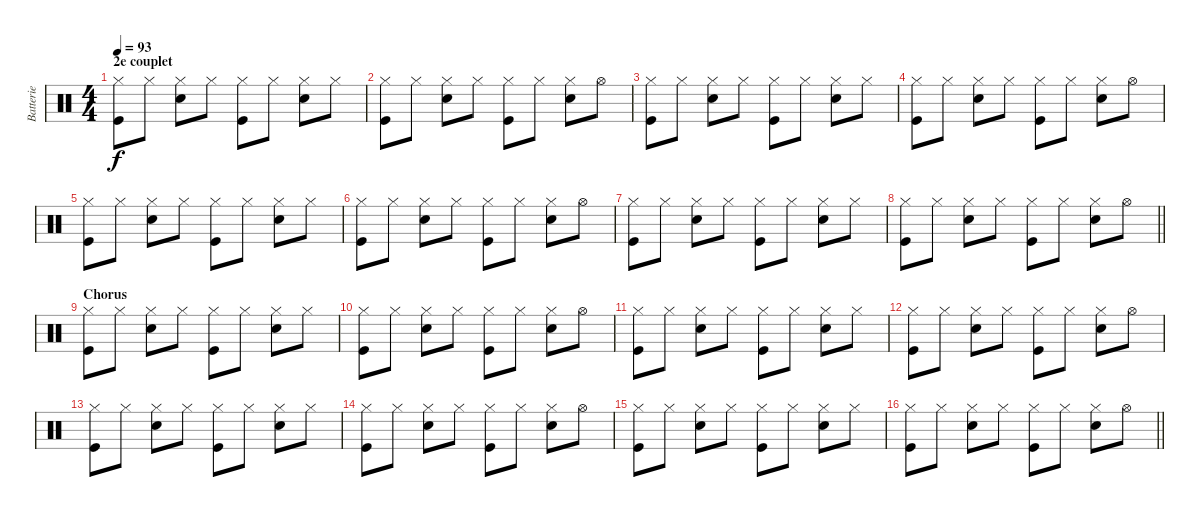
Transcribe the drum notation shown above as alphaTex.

\track ("Batterie" "Batterie") {instrument percussion}
\staff {score}
\articulation defaults
\ts (4 4)
\section ("" "2e couplet")
\tempo 93
\clef neutral
\ks c
("Hi-Hat (closed)" "Kick (hit)").8{dy f} "Hi-Hat (closed)".8 ("Hi-Hat (closed)" "Snare (hit) 2").8 "Hi-Hat (closed)".8 ("Hi-Hat (closed)" "Kick (hit)").8 "Hi-Hat (closed)".8 ("Hi-Hat (closed)" "Snare (hit) 2").8 "Hi-Hat (closed)".8 |
("Hi-Hat (closed)" "Kick (hit)").8 "Hi-Hat (closed)".8 ("Hi-Hat (closed)" "Snare (hit) 2").8 "Hi-Hat (closed)".8 ("Hi-Hat (closed)" "Kick (hit)").8 "Hi-Hat (closed)".8 ("Hi-Hat (closed)" "Snare (hit) 2").8 "Hi-Hat (open)".8 |
("Hi-Hat (closed)" "Kick (hit)").8 "Hi-Hat (closed)".8 ("Hi-Hat (closed)" "Snare (hit) 2").8 "Hi-Hat (closed)".8 ("Hi-Hat (closed)" "Kick (hit)").8 "Hi-Hat (closed)".8 ("Hi-Hat (closed)" "Snare (hit) 2").8 "Hi-Hat (closed)".8 |
("Hi-Hat (closed)" "Kick (hit)").8 "Hi-Hat (closed)".8 ("Hi-Hat (closed)" "Snare (hit) 2").8 "Hi-Hat (closed)".8 ("Hi-Hat (closed)" "Kick (hit)").8 "Hi-Hat (closed)".8 ("Hi-Hat (closed)" "Snare (hit) 2").8 "Hi-Hat (open)".8 |
("Hi-Hat (closed)" "Kick (hit)").8 "Hi-Hat (closed)".8 ("Hi-Hat (closed)" "Snare (hit) 2").8 "Hi-Hat (closed)".8 ("Hi-Hat (closed)" "Kick (hit)").8 "Hi-Hat (closed)".8 ("Hi-Hat (closed)" "Snare (hit) 2").8 "Hi-Hat (closed)".8 |
("Hi-Hat (closed)" "Kick (hit)").8 "Hi-Hat (closed)".8 ("Hi-Hat (closed)" "Snare (hit) 2").8 "Hi-Hat (closed)".8 ("Hi-Hat (closed)" "Kick (hit)").8 "Hi-Hat (closed)".8 ("Hi-Hat (closed)" "Snare (hit) 2").8 "Hi-Hat (open)".8 |
("Hi-Hat (closed)" "Kick (hit)").8 "Hi-Hat (closed)".8 ("Hi-Hat (closed)" "Snare (hit) 2").8 "Hi-Hat (closed)".8 ("Hi-Hat (closed)" "Kick (hit)").8 "Hi-Hat (closed)".8 ("Hi-Hat (closed)" "Snare (hit) 2").8 "Hi-Hat (closed)".8 |
\barLineRight lightlight
("Hi-Hat (closed)" "Kick (hit)").8 "Hi-Hat (closed)".8 ("Hi-Hat (closed)" "Snare (hit) 2").8 "Hi-Hat (closed)".8 ("Hi-Hat (closed)" "Kick (hit)").8 "Hi-Hat (closed)".8 ("Hi-Hat (closed)" "Snare (hit) 2").8 "Hi-Hat (open)".8 |
\section ("" "Chorus")
("Hi-Hat (closed)" "Kick (hit)").8 "Hi-Hat (closed)".8 ("Hi-Hat (closed)" "Snare (hit) 2").8 "Hi-Hat (closed)".8 ("Hi-Hat (closed)" "Kick (hit)").8 "Hi-Hat (closed)".8 ("Hi-Hat (closed)" "Snare (hit) 2").8 "Hi-Hat (closed)".8 |
("Hi-Hat (closed)" "Kick (hit)").8 "Hi-Hat (closed)".8 ("Hi-Hat (closed)" "Snare (hit) 2").8 "Hi-Hat (closed)".8 ("Hi-Hat (closed)" "Kick (hit)").8 "Hi-Hat (closed)".8 ("Hi-Hat (closed)" "Snare (hit) 2").8 "Hi-Hat (open)".8 |
("Hi-Hat (closed)" "Kick (hit)").8 "Hi-Hat (closed)".8 ("Hi-Hat (closed)" "Snare (hit) 2").8 "Hi-Hat (closed)".8 ("Hi-Hat (closed)" "Kick (hit)").8 "Hi-Hat (closed)".8 ("Hi-Hat (closed)" "Snare (hit) 2").8 "Hi-Hat (closed)".8 |
("Hi-Hat (closed)" "Kick (hit)").8 "Hi-Hat (closed)".8 ("Hi-Hat (closed)" "Snare (hit) 2").8 "Hi-Hat (closed)".8 ("Hi-Hat (closed)" "Kick (hit)").8 "Hi-Hat (closed)".8 ("Hi-Hat (closed)" "Snare (hit) 2").8 "Hi-Hat (open)".8 |
("Hi-Hat (closed)" "Kick (hit)").8 "Hi-Hat (closed)".8 ("Hi-Hat (closed)" "Snare (hit) 2").8 "Hi-Hat (closed)".8 ("Hi-Hat (closed)" "Kick (hit)").8 "Hi-Hat (closed)".8 ("Hi-Hat (closed)" "Snare (hit) 2").8 "Hi-Hat (closed)".8 |
("Hi-Hat (closed)" "Kick (hit)").8 "Hi-Hat (closed)".8 ("Hi-Hat (closed)" "Snare (hit) 2").8 "Hi-Hat (closed)".8 ("Hi-Hat (closed)" "Kick (hit)").8 "Hi-Hat (closed)".8 ("Hi-Hat (closed)" "Snare (hit) 2").8 "Hi-Hat (open)".8 |
("Hi-Hat (closed)" "Kick (hit)").8 "Hi-Hat (closed)".8 ("Hi-Hat (closed)" "Snare (hit) 2").8 "Hi-Hat (closed)".8 ("Hi-Hat (closed)" "Kick (hit)").8 "Hi-Hat (closed)".8 ("Hi-Hat (closed)" "Snare (hit) 2").8 "Hi-Hat (closed)".8 |
\barLineRight lightlight
("Hi-Hat (closed)" "Kick (hit)").8 "Hi-Hat (closed)".8 ("Hi-Hat (closed)" "Snare (hit) 2").8 "Hi-Hat (closed)".8 ("Hi-Hat (closed)" "Kick (hit)").8 "Hi-Hat (closed)".8 ("Hi-Hat (closed)" "Snare (hit) 2").8 "Hi-Hat (open)".8
